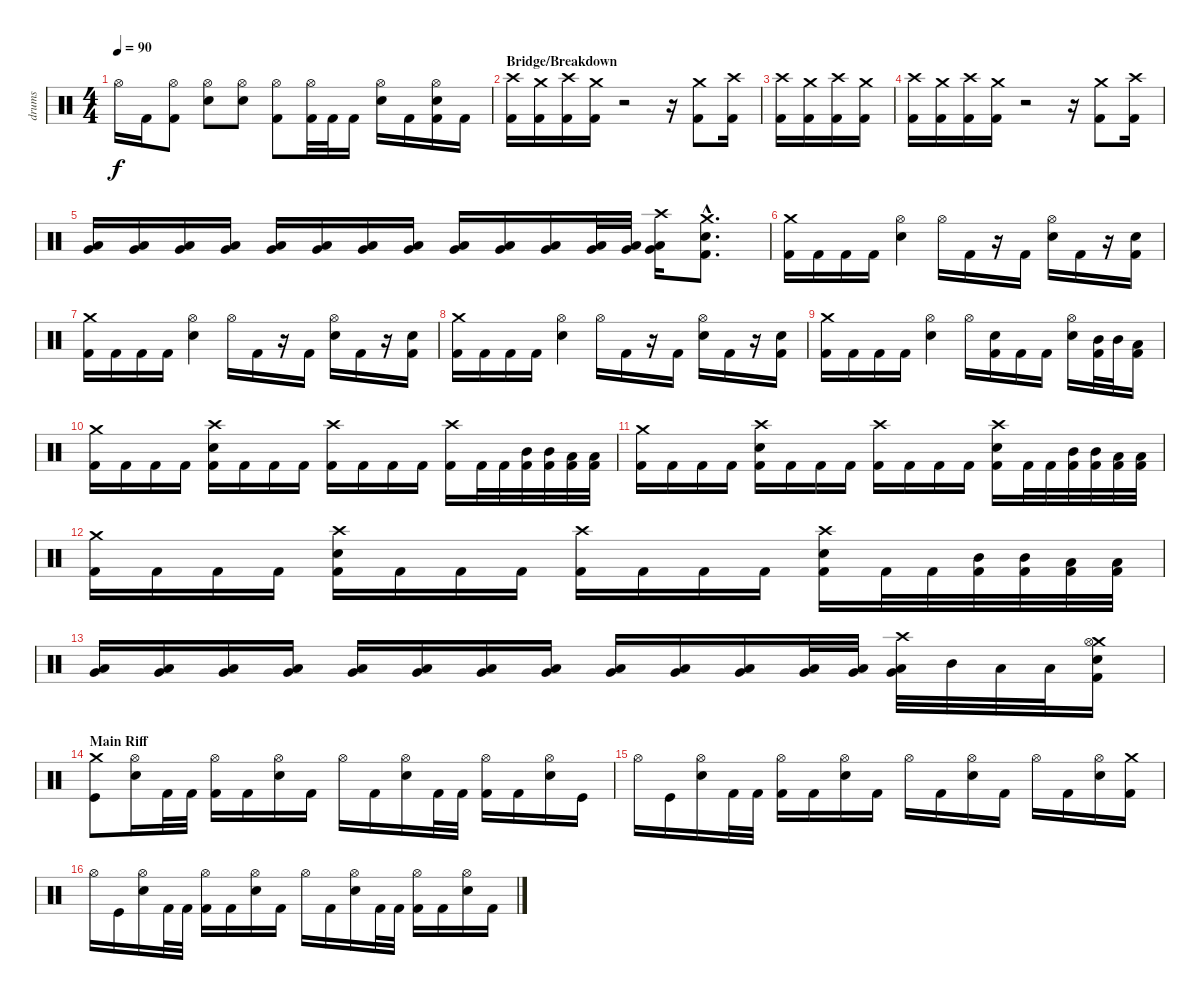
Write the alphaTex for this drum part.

\track ("drums" "drums") {instrument percussion}
\staff {score}
\articulation defaults
\ts (4 4)
\tempo 90
\clef neutral
\ks c "Hi-Hat (open)".16{dy f} "Kick (hit) 2".16
("Hi-Hat (open)" "Kick (hit) 2").8 ("Hi-Hat (open)" "Electric Snare (hit)").8 ("Hi-Hat (open)" "Electric Snare (hit)").8 ("Hi-Hat (open)" "Kick (hit) 2").8 ("Hi-Hat (open)" "Kick (hit) 2").32 "Kick (hit) 2".32 "Kick (hit) 2".16 ("Hi-Hat (open)" "Electric Snare (hit)").16 "Kick (hit) 2".16 ("Hi-Hat (open)" "Electric Snare (hit)" "Kick (hit) 2").16 "Kick (hit) 2".16 |
\section ("" "Bridge/Breakdown")
("Crash high (hit)" "Kick (hit) 2").16 ("Crash medium (hit)" "Kick (hit) 2").16 ("Crash high (hit)" "Kick (hit) 2").16 ("Crash medium (hit)" "Kick (hit) 2").16 r.2 r.16 ("Crash medium (hit)" "Kick (hit) 2").8 ("Crash high (hit)" "Kick (hit) 2").16 |
("Crash high (hit)" "Kick (hit) 2").16 ("Crash medium (hit)" "Kick (hit) 2").16 ("Crash high (hit)" "Kick (hit) 2").16 ("Crash medium (hit)" "Kick (hit) 2").16 |
("Crash high (hit)" "Kick (hit) 2").16 ("Crash medium (hit)" "Kick (hit) 2").16 ("Crash high (hit)" "Kick (hit) 2").16 ("Crash medium (hit)" "Kick (hit) 2").16 r.2 r.16 ("Crash medium (hit)" "Kick (hit) 2").8 ("Crash high (hit)" "Kick (hit) 2").16 |
("Very Low Tom (hit)" "Low Floor Tom (hit)").16 ("Very Low Tom (hit)" "Low Floor Tom (hit)").16 ("Very Low Tom (hit)" "Low Floor Tom (hit)").16 ("Very Low Tom (hit)" "Low Floor Tom (hit)").16 ("Very Low Tom (hit)" "Low Floor Tom (hit)").16 ("Very Low Tom (hit)" "Low Floor Tom (hit)").16 ("Very Low Tom (hit)" "Low Floor Tom (hit)").16 ("Very Low Tom (hit)" "Low Floor Tom (hit)").16 ("Very Low Tom (hit)" "Low Floor Tom (hit)").16 ("Very Low Tom (hit)" "Low Floor Tom (hit)").16 ("Very Low Tom (hit)" "Low Floor Tom (hit)").16 ("Very Low Tom (hit)" "Low Floor Tom (hit)").32 ("Very Low Tom (hit)" "Low Floor Tom (hit)").32 ("Crash high (hit)" "Very Low Tom (hit)" "Low Floor Tom (hit)").16 ("Crash medium (hit)"{hac} "Electric Snare (hit)"{hac} "Kick (hit) 2"{hac}).8{d} |
("Crash medium (hit)" "Kick (hit) 2").16 "Kick (hit) 2".16 "Kick (hit) 2".16 "Kick (hit) 2".16 ("Hi-Hat (open)" "Electric Snare (hit)").4 "Hi-Hat (open)".16 "Kick (hit) 2".16 r.16 "Kick (hit) 2".16 ("Hi-Hat (open)" "Electric Snare (hit)").16 "Kick (hit) 2".16 r.16 ("Electric Snare (hit)" "Kick (hit) 2").16 |
("Crash medium (hit)" "Kick (hit) 2").16 "Kick (hit) 2".16 "Kick (hit) 2".16 "Kick (hit) 2".16 ("Hi-Hat (open)" "Electric Snare (hit)").4 "Hi-Hat (open)".16 "Kick (hit) 2".16 r.16 "Kick (hit) 2".16 ("Hi-Hat (open)" "Electric Snare (hit)").16 "Kick (hit) 2".16 r.16 ("Electric Snare (hit)" "Kick (hit) 2").16 |
("Crash medium (hit)" "Kick (hit) 2").16 "Kick (hit) 2".16 "Kick (hit) 2".16 "Kick (hit) 2".16 ("Hi-Hat (open)" "Electric Snare (hit)").4 "Hi-Hat (open)".16 "Kick (hit) 2".16 r.16 "Kick (hit) 2".16 ("Hi-Hat (open)" "Electric Snare (hit)").16 "Kick (hit) 2".16 r.16 ("Electric Snare (hit)" "Kick (hit) 2").16 |
("Crash medium (hit)" "Kick (hit) 2").16 "Kick (hit) 2".16 "Kick (hit) 2".16 "Kick (hit) 2".16 ("Hi-Hat (open)" "Electric Snare (hit)").4 "Hi-Hat (open)".16 ("Electric Snare (hit)" "Kick (hit) 2").16 "Kick (hit) 2".16 "Kick (hit) 2".16 ("Hi-Hat (open)" "Electric Snare (hit)").16 ("Mid Tom (hit)" "Kick (hit) 2").32 "Mid Tom (hit)".32 ("Low Tom (hit)" "Kick (hit) 2").16 |
("Crash medium (hit)" "Kick (hit) 2").16 "Kick (hit) 2".16 "Kick (hit) 2".16 "Kick (hit) 2".16 ("Crash high (hit)" "Electric Snare (hit)" "Kick (hit) 2").16 "Kick (hit) 2".16 "Kick (hit) 2".16 "Kick (hit) 2".16 ("Crash high (hit)" "Kick (hit) 2").16 "Kick (hit) 2".16 "Kick (hit) 2".16 "Kick (hit) 2".16 ("Crash high (hit)" "Kick (hit) 2").16 "Kick (hit) 2".32 "Kick (hit) 2".32 ("Mid Tom (hit)" "Kick (hit) 2").32 ("Mid Tom (hit)" "Kick (hit) 2").32 ("Low Tom (hit)" "Kick (hit) 2").32 ("Low Tom (hit)" "Kick (hit) 2").32 |
("Crash medium (hit)" "Kick (hit) 2").16 "Kick (hit) 2".16 "Kick (hit) 2".16 "Kick (hit) 2".16 ("Crash high (hit)" "Electric Snare (hit)" "Kick (hit) 2").16 "Kick (hit) 2".16 "Kick (hit) 2".16 "Kick (hit) 2".16 ("Crash high (hit)" "Kick (hit) 2").16 "Kick (hit) 2".16 "Kick (hit) 2".16 "Kick (hit) 2".16 ("Crash high (hit)" "Electric Snare (hit)" "Kick (hit) 2").16 "Kick (hit) 2".32 "Kick (hit) 2".32 ("Mid Tom (hit)" "Kick (hit) 2").32 ("Mid Tom (hit)" "Kick (hit) 2").32 ("Low Tom (hit)" "Kick (hit) 2").32 ("Low Tom (hit)" "Kick (hit) 2").32 |
("Crash medium (hit)" "Kick (hit) 2").16 "Kick (hit) 2".16 "Kick (hit) 2".16 "Kick (hit) 2".16 ("Crash high (hit)" "Electric Snare (hit)" "Kick (hit) 2").16 "Kick (hit) 2".16 "Kick (hit) 2".16 "Kick (hit) 2".16 ("Crash high (hit)" "Kick (hit) 2").16 "Kick (hit) 2".16 "Kick (hit) 2".16 "Kick (hit) 2".16 ("Crash high (hit)" "Electric Snare (hit)" "Kick (hit) 2").16 "Kick (hit) 2".32 "Kick (hit) 2".32 ("Mid Tom (hit)" "Kick (hit) 2").32 ("Mid Tom (hit)" "Kick (hit) 2").32 ("Low Tom (hit)" "Kick (hit) 2").32 ("Low Tom (hit)" "Kick (hit) 2").32 |
("Very Low Tom (hit)" "Low Floor Tom (hit)").16 ("Very Low Tom (hit)" "Low Floor Tom (hit)").16 ("Very Low Tom (hit)" "Low Floor Tom (hit)").16 ("Very Low Tom (hit)" "Low Floor Tom (hit)").16 ("Very Low Tom (hit)" "Low Floor Tom (hit)").16 ("Very Low Tom (hit)" "Low Floor Tom (hit)").16 ("Very Low Tom (hit)" "Low Floor Tom (hit)").16 ("Very Low Tom (hit)" "Low Floor Tom (hit)").16 ("Very Low Tom (hit)" "Low Floor Tom (hit)").16 ("Very Low Tom (hit)" "Low Floor Tom (hit)").16 ("Very Low Tom (hit)" "Low Floor Tom (hit)").16 ("Very Low Tom (hit)" "Low Floor Tom (hit)").32 ("Very Low Tom (hit)" "Low Floor Tom (hit)").32 ("Crash high (hit)" "Very Low Tom (hit)" "Low Floor Tom (hit)").32 "Mid Tom (hit)".32 "Low Tom (hit)".32 "Low Tom (hit)".32 ("Crash medium (hit)" "Hi-Hat (open)" "Electric Snare (hit)" "Kick (hit) 2").16 |
\section ("" "Main Riff")
("Crash medium (hit)" "Kick (hit)").8 ("Hi-Hat (open)" "Electric Snare (hit)").16 "Kick (hit) 2".32 "Kick (hit) 2".32 ("Hi-Hat (open)" "Kick (hit) 2").16 "Kick (hit) 2".16 ("Hi-Hat (open)" "Electric Snare (hit)").16 "Kick (hit) 2".16 "Hi-Hat (open)".16 "Kick (hit) 2".16 ("Hi-Hat (open)" "Electric Snare (hit)").16 "Kick (hit) 2".32 "Kick (hit) 2".32 ("Hi-Hat (open)" "Kick (hit) 2").16 "Kick (hit) 2".16 ("Hi-Hat (open)" "Electric Snare (hit)").16 "Kick (hit)".16 |
"Hi-Hat (open)".16 "Kick (hit)".16 ("Hi-Hat (open)" "Electric Snare (hit)").16 "Kick (hit) 2".32 "Kick (hit) 2".32 ("Hi-Hat (open)" "Kick (hit) 2").16 "Kick (hit) 2".16 ("Hi-Hat (open)" "Electric Snare (hit)").16 "Kick (hit) 2".16 "Hi-Hat (open)".16 "Kick (hit) 2".16 ("Hi-Hat (open)" "Electric Snare (hit)").16 "Kick (hit) 2".16 "Hi-Hat (open)".16 "Kick (hit) 2".16 ("Hi-Hat (open)" "Electric Snare (hit)").16 ("Crash medium (hit)" "Kick (hit) 2").16 |
"Hi-Hat (open)".16 "Kick (hit)".16 ("Hi-Hat (open)" "Electric Snare (hit)").16 "Kick (hit) 2".32 "Kick (hit) 2".32 ("Hi-Hat (open)" "Kick (hit) 2").16 "Kick (hit) 2".16 ("Hi-Hat (open)" "Electric Snare (hit)").16 "Kick (hit) 2".16 "Hi-Hat (open)".16 "Kick (hit) 2".16 ("Hi-Hat (open)" "Electric Snare (hit)").16 "Kick (hit) 2".32 "Kick (hit) 2".32 ("Hi-Hat (open)" "Kick (hit) 2").16 "Kick (hit) 2".16 ("Hi-Hat (open)" "Electric Snare (hit)").16 "Kick (hit) 2".16
